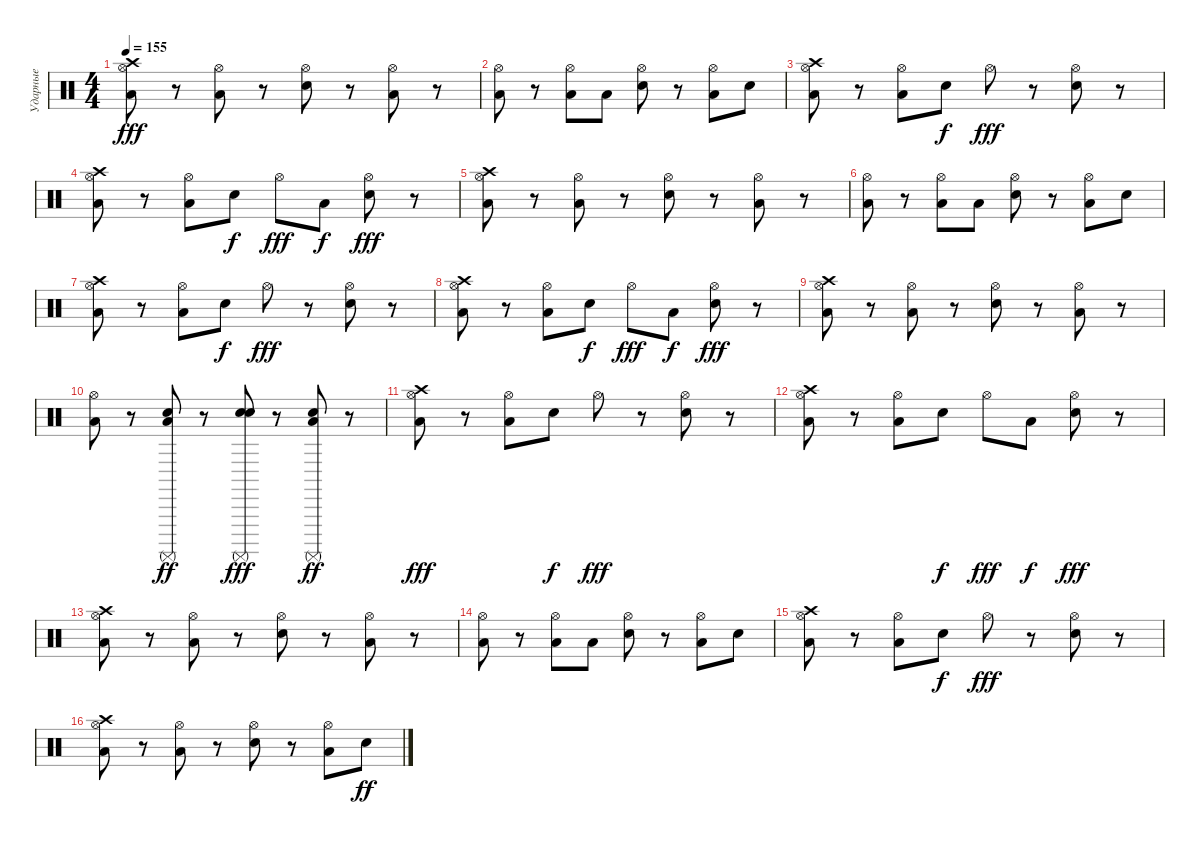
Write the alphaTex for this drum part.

\track ("Ударные" "Ударные") {instrument percussion}
\staff {score}
\articulation defaults
\ts (4 4)
\tempo 155
\clef neutral
\ks c
("Hi-Hat (open)" "Crash high (hit)" "Low Floor Tom (hit)").8{dy fff} r.8 ("Hi-Hat (open)" "Low Tom (hit)").8 r.8 ("Hi-Hat (open)" "Snare (hit) 2").8 r.8 ("Hi-Hat (open)" "Low Tom (hit)").8 r.8 |
("Hi-Hat (open)" "Low Floor Tom (hit)").8 r.8 ("Hi-Hat (open)" "Low Tom (hit)").8 "Low Floor Tom (hit)".8 ("Hi-Hat (open)" "Snare (hit) 2").8 r.8 ("Hi-Hat (open)" "Low Tom (hit)").8 "Snare (hit) 2".8 |
("Hi-Hat (open)" "Crash high (hit)" "Low Floor Tom (hit)").8 r.8 ("Hi-Hat (open)" "Low Tom (hit)").8 "Snare (hit) 2".8{dy f} "Hi-Hat (open)".8{dy fff} r.8 ("Hi-Hat (open)" "Snare (hit) 2").8 r.8 |
("Hi-Hat (open)" "Crash high (hit)" "Low Floor Tom (hit)").8 r.8 ("Hi-Hat (open)" "Low Tom (hit)").8 "Snare (hit) 2".8{dy f} "Hi-Hat (open)".8{dy fff} "Low Tom (hit)".8{dy f} ("Hi-Hat (open)" "Snare (hit) 2").8{dy fff} r.8 |
("Hi-Hat (open)" "Crash high (hit)" "Low Floor Tom (hit)").8 r.8 ("Hi-Hat (open)" "Low Tom (hit)").8 r.8 ("Hi-Hat (open)" "Snare (hit) 2").8 r.8 ("Hi-Hat (open)" "Low Tom (hit)").8 r.8 |
("Hi-Hat (open)" "Low Floor Tom (hit)").8 r.8 ("Hi-Hat (open)" "Low Tom (hit)").8 "Low Floor Tom (hit)".8 ("Hi-Hat (open)" "Snare (hit) 2").8 r.8 ("Hi-Hat (open)" "Low Tom (hit)").8 "Snare (hit) 2".8 |
("Hi-Hat (open)" "Crash high (hit)" "Low Floor Tom (hit)").8 r.8 ("Hi-Hat (open)" "Low Tom (hit)").8 "Snare (hit) 2".8{dy f} "Hi-Hat (open)".8{dy fff} r.8 ("Hi-Hat (open)" "Snare (hit) 2").8 r.8 |
("Hi-Hat (open)" "Crash high (hit)" "Low Floor Tom (hit)").8 r.8 ("Hi-Hat (open)" "Low Tom (hit)").8 "Snare (hit) 2".8{dy f} "Hi-Hat (open)".8{dy fff} "Low Tom (hit)".8{dy f} ("Hi-Hat (open)" "Snare (hit) 2").8{dy fff} r.8 |
("Hi-Hat (open)" "Crash high (hit)" "Low Floor Tom (hit)").8 r.8 ("Hi-Hat (open)" "Low Tom (hit)").8 r.8 ("Hi-Hat (open)" "Snare (hit) 2").8 r.8 ("Hi-Hat (open)" "Low Tom (hit)").8 r.8 |
("Hi-Hat (open)" "Low Floor Tom (hit)").8 r.8 ("Surdo (mute)" "Snare (hit) 2" "Low Tom (hit)").8{dy ff} r.8 ("Surdo (mute)" "Snare (hit) 2" "Snare (hit) 2").8{dy fff} r.8 ("Surdo (mute)" "Snare (hit) 2" "Low Tom (hit)").8{dy ff} r.8 |
("Hi-Hat (open)" "Crash high (hit)" "Low Floor Tom (hit)").8{dy fff} r.8 ("Hi-Hat (open)" "Low Tom (hit)").8 "Snare (hit) 2".8{dy f} "Hi-Hat (open)".8{dy fff} r.8 ("Hi-Hat (open)" "Snare (hit) 2").8 r.8 |
("Hi-Hat (open)" "Crash high (hit)" "Low Floor Tom (hit)").8 r.8 ("Hi-Hat (open)" "Low Tom (hit)").8 "Snare (hit) 2".8{dy f} "Hi-Hat (open)".8{dy fff} "Low Tom (hit)".8{dy f} ("Hi-Hat (open)" "Snare (hit) 2").8{dy fff} r.8 |
("Hi-Hat (open)" "Crash high (hit)" "Low Floor Tom (hit)").8 r.8 ("Hi-Hat (open)" "Low Tom (hit)").8 r.8 ("Hi-Hat (open)" "Snare (hit) 2").8 r.8 ("Hi-Hat (open)" "Low Tom (hit)").8 r.8 |
("Hi-Hat (open)" "Low Floor Tom (hit)").8 r.8 ("Hi-Hat (open)" "Low Tom (hit)").8 "Low Floor Tom (hit)".8 ("Hi-Hat (open)" "Snare (hit) 2").8 r.8 ("Hi-Hat (open)" "Low Tom (hit)").8 "Snare (hit) 2".8 |
("Hi-Hat (open)" "Crash high (hit)" "Low Floor Tom (hit)").8 r.8 ("Hi-Hat (open)" "Low Tom (hit)").8 "Snare (hit) 2".8{dy f} "Hi-Hat (open)".8{dy fff} r.8 ("Hi-Hat (open)" "Snare (hit) 2").8 r.8 |
("Hi-Hat (open)" "Crash high (hit)" "Low Floor Tom (hit)").8 r.8 ("Hi-Hat (open)" "Low Tom (hit)").8 r.8 ("Hi-Hat (open)" "Snare (hit) 2").8 r.8 ("Hi-Hat (open)" "Low Tom (hit)").8 "Snare (hit) 2".8{dy ff}
